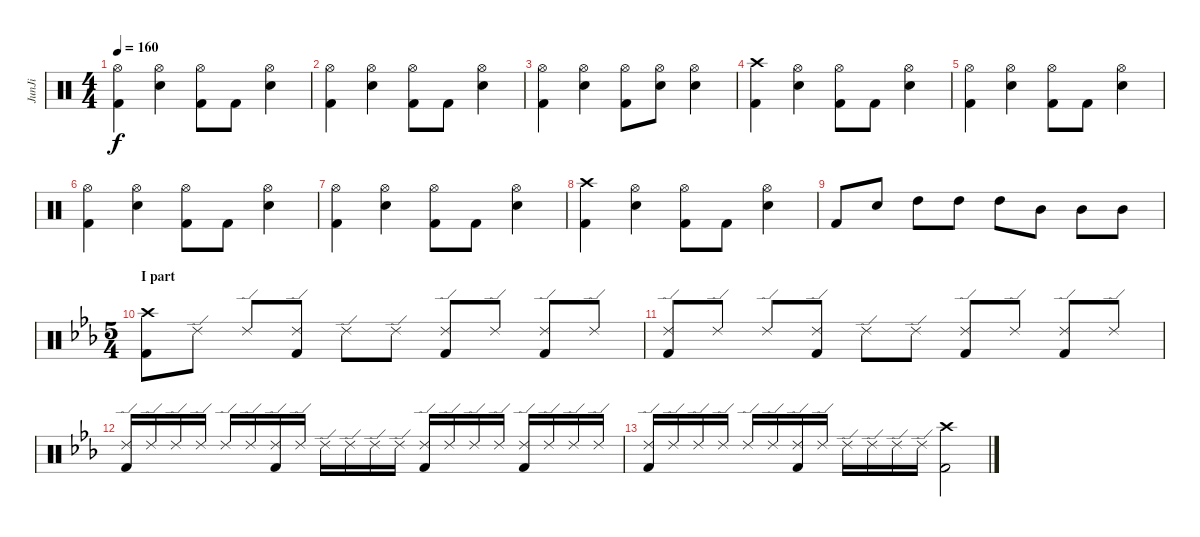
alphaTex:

\track ("JunJi" "JunJi") {instrument percussion}
\staff {score}
\articulation defaults
\ts (4 4)
\tempo 160
\clef neutral
\ks c
("Hi-Hat (open)" "Kick (hit) 2").4{dy f} ("Hi-Hat (open)" "Snare (hit) 2").4 ("Hi-Hat (open)" "Kick (hit) 2").8 "Kick (hit) 2".8 ("Hi-Hat (open)" "Snare (hit) 2").4 |
("Hi-Hat (open)" "Kick (hit) 2").4 ("Hi-Hat (open)" "Snare (hit) 2").4 ("Hi-Hat (open)" "Kick (hit) 2").8 "Kick (hit) 2".8 ("Hi-Hat (open)" "Snare (hit) 2").4 |
("Hi-Hat (open)" "Kick (hit) 2").4 ("Hi-Hat (open)" "Snare (hit) 2").4 ("Hi-Hat (open)" "Kick (hit) 2").8 ("Hi-Hat (open)" "Snare (hit) 2").8 ("Hi-Hat (open)" "Snare (hit) 2").4 |
("Crash high (hit)" "Kick (hit) 2").4 ("Hi-Hat (open)" "Snare (hit) 2").4 ("Hi-Hat (open)" "Kick (hit) 2").8 "Kick (hit) 2".8 ("Hi-Hat (open)" "Snare (hit) 2").4 |
("Hi-Hat (open)" "Kick (hit) 2").4 ("Hi-Hat (open)" "Snare (hit) 2").4 ("Hi-Hat (open)" "Kick (hit) 2").8 "Kick (hit) 2".8 ("Hi-Hat (open)" "Snare (hit) 2").4 |
("Hi-Hat (open)" "Kick (hit) 2").4 ("Hi-Hat (open)" "Snare (hit) 2").4 ("Hi-Hat (open)" "Kick (hit) 2").8 "Kick (hit) 2".8 ("Hi-Hat (open)" "Snare (hit) 2").4 |
("Hi-Hat (open)" "Kick (hit) 2").4 ("Hi-Hat (open)" "Snare (hit) 2").4 ("Hi-Hat (open)" "Kick (hit) 2").8 "Kick (hit) 2".8 ("Hi-Hat (open)" "Snare (hit) 2").4 |
("Crash high (hit)" "Kick (hit) 2").4 ("Hi-Hat (open)" "Snare (hit) 2").4 ("Hi-Hat (open)" "Kick (hit) 2").8 "Kick (hit) 2".8 ("Hi-Hat (open)" "Snare (hit) 2").4 |
"Kick (hit) 2".8 "Snare (hit) 2".8 "High Tom (hit)".8 "High Tom (hit)".8 "High Tom (hit)".8 "Mid Tom (hit)".8 "Mid Tom (hit)".8 "Mid Tom (hit)".8 |
\ts (5 4)
\section ("" "I part")
\ks eb
("Crash high (hit)" "Kick (hit) 2").8 "Ride (edge) 2".8 "Ride (edge) 2".8 ("Ride (edge) 2" "Kick (hit) 2").8 "Ride (edge) 2".8 "Ride (edge) 2".8 ("Ride (edge) 2" "Kick (hit) 2").8 "Ride (edge) 2".8 ("Ride (edge) 2" "Kick (hit) 2").8 "Ride (edge) 2".8 |
("Ride (edge) 2" "Kick (hit) 2").8 "Ride (edge) 2".8 "Ride (edge) 2".8 ("Ride (edge) 2" "Kick (hit) 2").8 "Ride (edge) 2".8 "Ride (edge) 2".8 ("Ride (edge) 2" "Kick (hit) 2").8 "Ride (edge) 2".8 ("Ride (edge) 2" "Kick (hit) 2").8 "Ride (edge) 2".8 |
("Ride (edge) 2" "Kick (hit) 2").16 "Ride (edge) 2".16 "Ride (edge) 2".16 "Ride (edge) 2".16 "Ride (edge) 2".16 "Ride (edge) 2".16 ("Ride (edge) 2" "Kick (hit) 2").16 "Ride (edge) 2".16 "Ride (edge) 2".16 "Ride (edge) 2".16 "Ride (edge) 2".16 "Ride (edge) 2".16 ("Ride (edge) 2" "Kick (hit) 2").16 "Ride (edge) 2".16 "Ride (edge) 2".16 "Ride (edge) 2".16 ("Ride (edge) 2" "Kick (hit) 2").16 "Ride (edge) 2".16 "Ride (edge) 2".16 "Ride (edge) 2".16 |
("Ride (edge) 2" "Kick (hit) 2").16 "Ride (edge) 2".16 "Ride (edge) 2".16 "Ride (edge) 2".16 "Ride (edge) 2".16 "Ride (edge) 2".16 ("Ride (edge) 2" "Kick (hit) 2").16 "Ride (edge) 2".16 "Ride (edge) 2".16 "Ride (edge) 2".16 "Ride (edge) 2".16 "Ride (edge) 2".16 ("Crash high (hit)" "Kick (hit) 2").2
